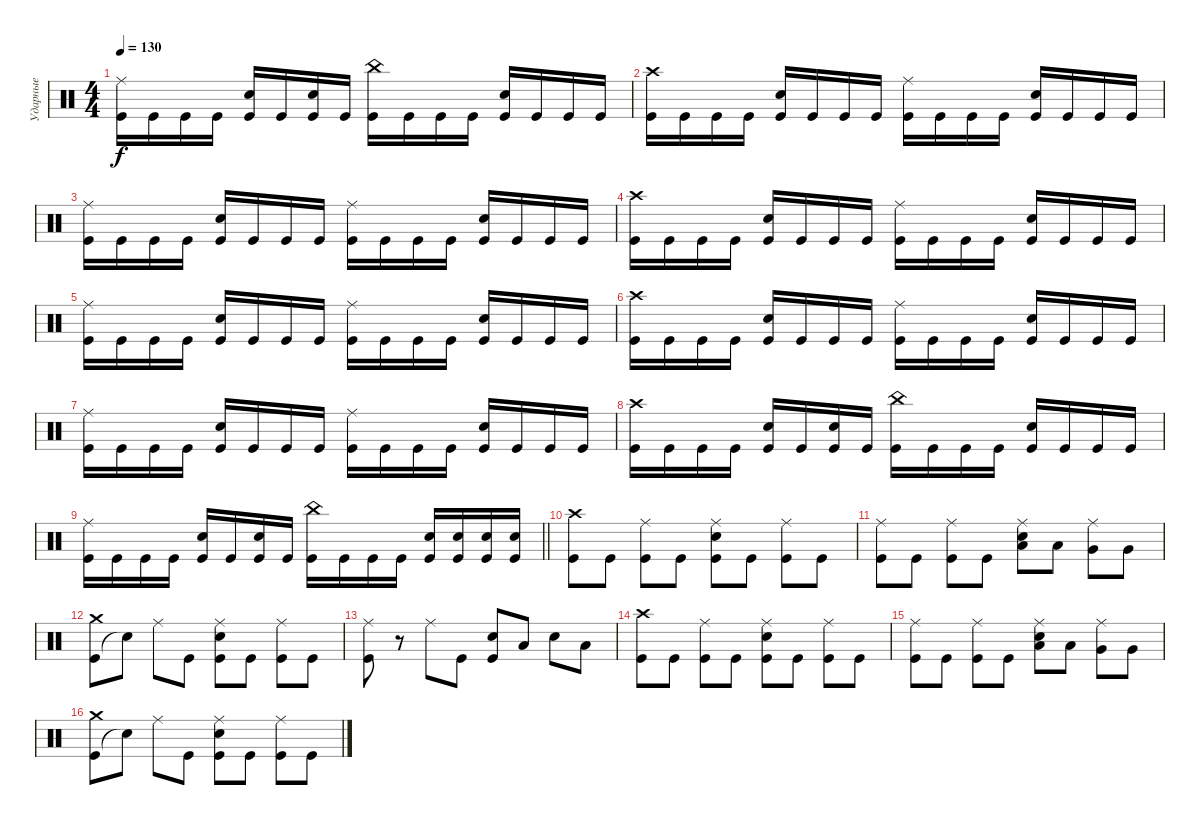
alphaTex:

\track ("Ударные" "Ударные") {instrument percussion}
\staff {score}
\articulation defaults
\ts (4 4)
\tempo 130
\clef neutral
\ks c
("Ride (middle)" "Kick (hit)").16{dy f} "Kick (hit)".16 "Kick (hit)".16 "Kick (hit)".16 ("Electric Snare (hit)" "Kick (hit)").16 "Kick (hit)".16 ("Electric Snare (hit)" "Kick (hit)").16 "Kick (hit)".16 ("China (hit)" "Kick (hit)").16 "Kick (hit)".16 "Kick (hit)".16 "Kick (hit)".16 ("Electric Snare (hit)" "Kick (hit)").16 "Kick (hit)".16 "Kick (hit)".16 "Kick (hit)".16 |
("Crash high (hit)" "Kick (hit)").16 "Kick (hit)".16 "Kick (hit)".16 "Kick (hit)".16 ("Electric Snare (hit)" "Kick (hit)").16 "Kick (hit)".16 "Kick (hit)".16 "Kick (hit)".16 ("Ride (middle)" "Kick (hit)").16 "Kick (hit)".16 "Kick (hit)".16 "Kick (hit)".16 ("Electric Snare (hit)" "Kick (hit)").16 "Kick (hit)".16 "Kick (hit)".16 "Kick (hit)".16 |
("Ride (middle)" "Kick (hit)").16 "Kick (hit)".16 "Kick (hit)".16 "Kick (hit)".16 ("Electric Snare (hit)" "Kick (hit)").16 "Kick (hit)".16 "Kick (hit)".16 "Kick (hit)".16 ("Ride (middle)" "Kick (hit)").16 "Kick (hit)".16 "Kick (hit)".16 "Kick (hit)".16 ("Electric Snare (hit)" "Kick (hit)").16 "Kick (hit)".16 "Kick (hit)".16 "Kick (hit)".16 |
("Crash high (hit)" "Kick (hit)").16 "Kick (hit)".16 "Kick (hit)".16 "Kick (hit)".16 ("Electric Snare (hit)" "Kick (hit)").16 "Kick (hit)".16 "Kick (hit)".16 "Kick (hit)".16 ("Ride (middle)" "Kick (hit)").16 "Kick (hit)".16 "Kick (hit)".16 "Kick (hit)".16 ("Electric Snare (hit)" "Kick (hit)").16 "Kick (hit)".16 "Kick (hit)".16 "Kick (hit)".16 |
("Ride (middle)" "Kick (hit)").16 "Kick (hit)".16 "Kick (hit)".16 "Kick (hit)".16 ("Electric Snare (hit)" "Kick (hit)").16 "Kick (hit)".16 "Kick (hit)".16 "Kick (hit)".16 ("Ride (middle)" "Kick (hit)").16 "Kick (hit)".16 "Kick (hit)".16 "Kick (hit)".16 ("Electric Snare (hit)" "Kick (hit)").16 "Kick (hit)".16 "Kick (hit)".16 "Kick (hit)".16 |
("Crash high (hit)" "Kick (hit)").16 "Kick (hit)".16 "Kick (hit)".16 "Kick (hit)".16 ("Electric Snare (hit)" "Kick (hit)").16 "Kick (hit)".16 "Kick (hit)".16 "Kick (hit)".16 ("Ride (middle)" "Kick (hit)").16 "Kick (hit)".16 "Kick (hit)".16 "Kick (hit)".16 ("Electric Snare (hit)" "Kick (hit)").16 "Kick (hit)".16 "Kick (hit)".16 "Kick (hit)".16 |
("Ride (middle)" "Kick (hit)").16 "Kick (hit)".16 "Kick (hit)".16 "Kick (hit)".16 ("Electric Snare (hit)" "Kick (hit)").16 "Kick (hit)".16 "Kick (hit)".16 "Kick (hit)".16 ("Ride (middle)" "Kick (hit)").16 "Kick (hit)".16 "Kick (hit)".16 "Kick (hit)".16 ("Electric Snare (hit)" "Kick (hit)").16 "Kick (hit)".16 "Kick (hit)".16 "Kick (hit)".16 |
("Crash high (hit)" "Kick (hit)").16 "Kick (hit)".16 "Kick (hit)".16 "Kick (hit)".16 ("Electric Snare (hit)" "Kick (hit)").16 "Kick (hit)".16 ("Electric Snare (hit)" "Kick (hit)").16 "Kick (hit)".16 ("China (hit)" "Kick (hit)").16 "Kick (hit)".16 "Kick (hit)".16 "Kick (hit)".16 ("Electric Snare (hit)" "Kick (hit)").16 "Kick (hit)".16 "Kick (hit)".16 "Kick (hit)".16 |
\barLineRight lightlight
("Ride (middle)" "Kick (hit)").16 "Kick (hit)".16 "Kick (hit)".16 "Kick (hit)".16 ("Electric Snare (hit)" "Kick (hit)").16 "Kick (hit)".16 ("Electric Snare (hit)" "Kick (hit)").16 "Kick (hit)".16 ("China (hit)" "Kick (hit)").16 "Kick (hit)".16 "Kick (hit)".16 "Kick (hit)".16 ("Electric Snare (hit)" "Kick (hit)").16 ("Electric Snare (hit)" "Kick (hit)").16 ("Electric Snare (hit)" "Kick (hit)").16 ("Electric Snare (hit)" "Kick (hit)").16 |
\section ("" " ")
("Crash high (hit)" "Kick (hit)").8 "Kick (hit)".8 ("Ride (middle)" "Kick (hit)").8 "Kick (hit)".8 ("Ride (middle)" "Electric Snare (hit)" "Kick (hit)").8 "Kick (hit)".8 ("Ride (middle)" "Kick (hit)").8 "Kick (hit)".8 |
("Ride (middle)" "Kick (hit)").8 "Kick (hit)".8 ("Ride (middle)" "Kick (hit)").8 "Kick (hit)".8 ("Ride (middle)" "Electric Snare (hit)" "Low Tom (hit)").8 "Low Tom (hit)".8 ("Ride (middle)" "Very Low Tom (hit)").8 "Very Low Tom (hit)".8 |
("Kick (hit)" "Crash medium (hit)").8 "Snare (hit)"{t}.8 "Ride (middle)".8 "Kick (hit)".8 ("Electric Snare (hit)" "Kick (hit)" "Ride (middle)").8 "Kick (hit)".8 ("Kick (hit)" "Ride (middle)").8 "Kick (hit)".8 |
("Ride (middle)" "Kick (hit)").8 r.8 "Ride (middle)".8 "Kick (hit)".8 ("Electric Snare (hit)" "Kick (hit)").8 "Low Floor Tom (hit)".8 "Electric Snare (hit)".8 "Low Floor Tom (hit)".8 |
("Crash high (hit)" "Kick (hit)").8 "Kick (hit)".8 ("Ride (middle)" "Kick (hit)").8 "Kick (hit)".8 ("Ride (middle)" "Electric Snare (hit)" "Kick (hit)").8 "Kick (hit)".8 ("Ride (middle)" "Kick (hit)").8 "Kick (hit)".8 |
("Ride (middle)" "Kick (hit)").8 "Kick (hit)".8 ("Ride (middle)" "Kick (hit)").8 "Kick (hit)".8 ("Ride (middle)" "Electric Snare (hit)" "Low Tom (hit)").8 "Low Tom (hit)".8 ("Ride (middle)" "Very Low Tom (hit)").8 "Very Low Tom (hit)".8 |
("Kick (hit)" "Crash medium (hit)").8 "Snare (hit)"{t}.8 "Ride (middle)".8 "Kick (hit)".8 ("Electric Snare (hit)" "Kick (hit)" "Ride (middle)").8 "Kick (hit)".8 ("Kick (hit)" "Ride (middle)").8 "Kick (hit)".8
